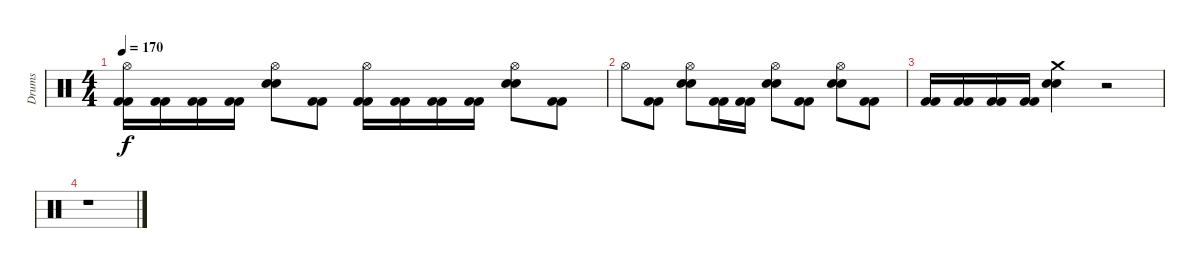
\track ("Drums" "Drums") {instrument percussion}
\staff {score}
\articulation defaults
\ts (4 4)
\tempo 170
\clef neutral
\ks c
("Hi-Hat (open)" "Kick (hit) 2" "Kick (hit) 2").16{dy f} ("Kick (hit) 2" "Kick (hit) 2").16 ("Kick (hit) 2" "Kick (hit) 2").16 ("Kick (hit) 2" "Kick (hit) 2").16 ("Hi-Hat (open)" "Electric Snare (hit)" "Electric Snare (hit)").8 ("Kick (hit) 2" "Kick (hit) 2").8 ("Hi-Hat (open)" "Kick (hit) 2" "Kick (hit) 2").16 ("Kick (hit) 2" "Kick (hit) 2").16 ("Kick (hit) 2" "Kick (hit) 2").16 ("Kick (hit) 2" "Kick (hit) 2").16 ("Hi-Hat (open)" "Electric Snare (hit)" "Electric Snare (hit)").8 ("Kick (hit) 2" "Kick (hit) 2").8 |
"Hi-Hat (open)".8 ("Kick (hit) 2" "Kick (hit) 2").8 ("Hi-Hat (open)" "Electric Snare (hit)" "Electric Snare (hit)").8 ("Kick (hit) 2" "Kick (hit) 2").16 ("Kick (hit) 2" "Kick (hit) 2").16 ("Hi-Hat (open)" "Electric Snare (hit)" "Electric Snare (hit)").8 ("Kick (hit) 2" "Kick (hit) 2").8 ("Hi-Hat (open)" "Electric Snare (hit)" "Electric Snare (hit)").8 ("Kick (hit) 2" "Kick (hit) 2").8 |
("Kick (hit) 2" "Kick (hit) 2").16 ("Kick (hit) 2" "Kick (hit) 2").16 ("Kick (hit) 2" "Kick (hit) 2").16 ("Kick (hit) 2" "Kick (hit) 2").16 ("Crash medium (hit)" "Electric Snare (hit)" "Electric Snare (hit)").4 r.2 |
r.1
